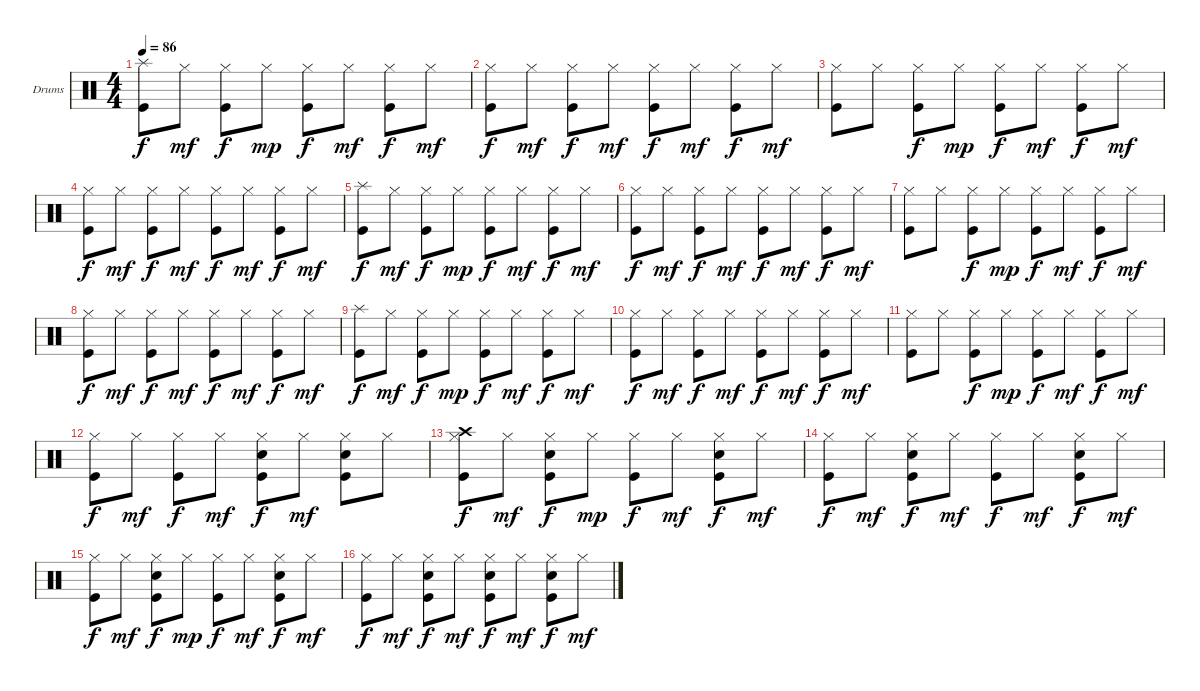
\bracketExtendMode groupsimilarinstruments
\firstSystemTrackNameOrientation horizontal
\otherSystemsTrackNameOrientation horizontal
\track ("Ударные" "Drums") {instrument percussion}
\staff {score}
\articulation defaults
\ts (4 4)
\tempo 86
\clef neutral
\ks c
("Splash (hit)" "Kick (hit)").8{dy f} "Hi-Hat (closed)".8{dy mf} ("Hi-Hat (closed)" "Kick (hit)").8{dy f} "Hi-Hat (closed)".8{dy mp} ("Hi-Hat (closed)" "Kick (hit)").8{dy f} "Hi-Hat (closed)".8{dy mf} ("Hi-Hat (closed)" "Kick (hit)").8{dy f} "Hi-Hat (closed)".8{dy mf} |
("Hi-Hat (closed)" "Kick (hit)").8{dy f} "Hi-Hat (closed)".8{dy mf} ("Hi-Hat (closed)" "Kick (hit)").8{dy f} "Hi-Hat (closed)".8{dy mf} ("Hi-Hat (closed)" "Kick (hit)").8{dy f} "Hi-Hat (closed)".8{dy mf} ("Hi-Hat (closed)" "Kick (hit)").8{dy f} "Hi-Hat (closed)".8{dy mf} |
("Hi-Hat (closed)" "Kick (hit)").8 "Hi-Hat (closed)".8 ("Hi-Hat (closed)" "Kick (hit)").8{dy f} "Hi-Hat (closed)".8{dy mp} ("Hi-Hat (closed)" "Kick (hit)").8{dy f} "Hi-Hat (closed)".8{dy mf} ("Hi-Hat (closed)" "Kick (hit)").8{dy f} "Hi-Hat (closed)".8{dy mf} |
("Hi-Hat (closed)" "Kick (hit)").8{dy f} "Hi-Hat (closed)".8{dy mf} ("Hi-Hat (closed)" "Kick (hit)").8{dy f} "Hi-Hat (closed)".8{dy mf} ("Hi-Hat (closed)" "Kick (hit)").8{dy f} "Hi-Hat (closed)".8{dy mf} ("Hi-Hat (closed)" "Kick (hit)").8{dy f} "Hi-Hat (closed)".8{dy mf} |
("Splash (hit)" "Kick (hit)").8{dy f} "Hi-Hat (closed)".8{dy mf} ("Hi-Hat (closed)" "Kick (hit)").8{dy f} "Hi-Hat (closed)".8{dy mp} ("Hi-Hat (closed)" "Kick (hit)").8{dy f} "Hi-Hat (closed)".8{dy mf} ("Hi-Hat (closed)" "Kick (hit)").8{dy f} "Hi-Hat (closed)".8{dy mf} |
("Hi-Hat (closed)" "Kick (hit)").8{dy f} "Hi-Hat (closed)".8{dy mf} ("Hi-Hat (closed)" "Kick (hit)").8{dy f} "Hi-Hat (closed)".8{dy mf} ("Hi-Hat (closed)" "Kick (hit)").8{dy f} "Hi-Hat (closed)".8{dy mf} ("Hi-Hat (closed)" "Kick (hit)").8{dy f} "Hi-Hat (closed)".8{dy mf} |
("Hi-Hat (closed)" "Kick (hit)").8 "Hi-Hat (closed)".8 ("Hi-Hat (closed)" "Kick (hit)").8{dy f} "Hi-Hat (closed)".8{dy mp} ("Hi-Hat (closed)" "Kick (hit)").8{dy f} "Hi-Hat (closed)".8{dy mf} ("Hi-Hat (closed)" "Kick (hit)").8{dy f} "Hi-Hat (closed)".8{dy mf} |
("Hi-Hat (closed)" "Kick (hit)").8{dy f} "Hi-Hat (closed)".8{dy mf} ("Hi-Hat (closed)" "Kick (hit)").8{dy f} "Hi-Hat (closed)".8{dy mf} ("Hi-Hat (closed)" "Kick (hit)").8{dy f} "Hi-Hat (closed)".8{dy mf} ("Hi-Hat (closed)" "Kick (hit)").8{dy f} "Hi-Hat (closed)".8{dy mf} |
("Splash (hit)" "Kick (hit)").8{dy f} "Hi-Hat (closed)".8{dy mf} ("Hi-Hat (closed)" "Kick (hit)").8{dy f} "Hi-Hat (closed)".8{dy mp} ("Hi-Hat (closed)" "Kick (hit)").8{dy f} "Hi-Hat (closed)".8{dy mf} ("Hi-Hat (closed)" "Kick (hit)").8{dy f} "Hi-Hat (closed)".8{dy mf} |
("Hi-Hat (closed)" "Kick (hit)").8{dy f} "Hi-Hat (closed)".8{dy mf} ("Hi-Hat (closed)" "Kick (hit)").8{dy f} "Hi-Hat (closed)".8{dy mf} ("Hi-Hat (closed)" "Kick (hit)").8{dy f} "Hi-Hat (closed)".8{dy mf} ("Hi-Hat (closed)" "Kick (hit)").8{dy f} "Hi-Hat (closed)".8{dy mf} |
("Hi-Hat (closed)" "Kick (hit)").8 "Hi-Hat (closed)".8 ("Hi-Hat (closed)" "Kick (hit)").8{dy f} "Hi-Hat (closed)".8{dy mp} ("Hi-Hat (closed)" "Kick (hit)").8{dy f} "Hi-Hat (closed)".8{dy mf} ("Hi-Hat (closed)" "Kick (hit)").8{dy f} "Hi-Hat (closed)".8{dy mf} |
("Hi-Hat (closed)" "Kick (hit)").8{dy f} "Hi-Hat (closed)".8{dy mf} ("Hi-Hat (closed)" "Kick (hit)").8{dy f} "Hi-Hat (closed)".8{dy mf} ("Hi-Hat (closed)" "Kick (hit)" "Snare (hit) 2").8{dy f} "Hi-Hat (closed)".8{dy mf} ("Snare (hit) 2" "Hi-Hat (closed)" "Kick (hit)").8 "Hi-Hat (closed)".8 |
("Hi-Hat (closed)" "Crash high (hit)" "Kick (hit)").8{dy f} "Hi-Hat (closed)".8{dy mf} ("Snare (hit) 2" "Hi-Hat (closed)" "Kick (hit)").8{dy f} "Hi-Hat (closed)".8{dy mp} ("Hi-Hat (closed)" "Kick (hit)").8{dy f} "Hi-Hat (closed)".8{dy mf} ("Snare (hit) 2" "Hi-Hat (closed)" "Kick (hit)").8{dy f} "Hi-Hat (closed)".8{dy mf} |
("Hi-Hat (closed)" "Kick (hit)").8{dy f} "Hi-Hat (closed)".8{dy mf} ("Snare (hit) 2" "Hi-Hat (closed)" "Kick (hit)").8{dy f} "Hi-Hat (closed)".8{dy mf} ("Hi-Hat (closed)" "Kick (hit)").8{dy f} "Hi-Hat (closed)".8{dy mf} ("Snare (hit) 2" "Hi-Hat (closed)" "Kick (hit)").8{dy f} "Hi-Hat (closed)".8{dy mf} |
("Hi-Hat (closed)" "Kick (hit)").8{dy f} "Hi-Hat (closed)".8{dy mf} ("Snare (hit) 2" "Hi-Hat (closed)" "Kick (hit)").8{dy f} "Hi-Hat (closed)".8{dy mp} ("Hi-Hat (closed)" "Kick (hit)").8{dy f} "Hi-Hat (closed)".8{dy mf} ("Snare (hit) 2" "Hi-Hat (closed)" "Kick (hit)").8{dy f} "Hi-Hat (closed)".8{dy mf} |
("Hi-Hat (closed)" "Kick (hit)").8{dy f} "Hi-Hat (closed)".8{dy mf} ("Snare (hit) 2" "Hi-Hat (closed)" "Kick (hit)").8{dy f} "Hi-Hat (closed)".8{dy mf} ("Hi-Hat (closed)" "Kick (hit)" "Snare (hit) 2").8{dy f} "Hi-Hat (closed)".8{dy mf} ("Snare (hit) 2" "Hi-Hat (closed)" "Kick (hit)").8{dy f} "Hi-Hat (closed)".8{dy mf}
